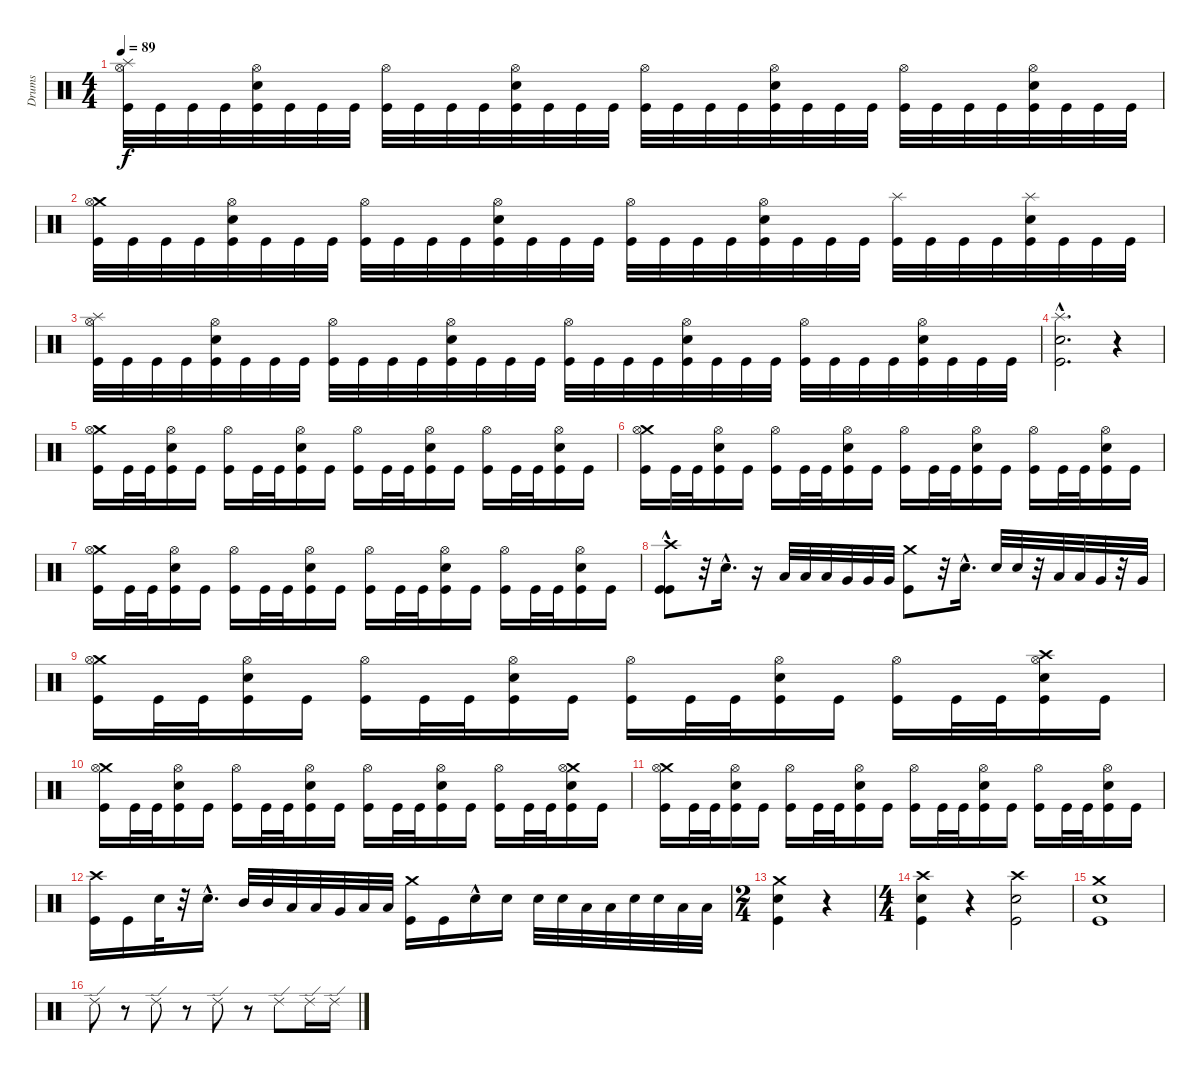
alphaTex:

\track ("Drums" "Drums") {instrument percussion}
\staff {score}
\articulation defaults
\ts (4 4)
\tempo 89
\clef neutral
\ks c
("Splash (hit)" "Hi-Hat (open)" "Kick (hit)").32{dy f} "Kick (hit)".32 "Kick (hit)".32 "Kick (hit)".32 ("Snare (hit) 2" "Hi-Hat (open)" "Kick (hit)").32 "Kick (hit)".32 "Kick (hit)".32 "Kick (hit)".32 ("Hi-Hat (open)" "Kick (hit)").32 "Kick (hit)".32 "Kick (hit)".32 "Kick (hit)".32 ("Snare (hit) 2" "Hi-Hat (open)" "Kick (hit)").32 "Kick (hit)".32 "Kick (hit)".32 "Kick (hit)".32 ("Hi-Hat (open)" "Kick (hit)").32 "Kick (hit)".32 "Kick (hit)".32 "Kick (hit)".32 ("Snare (hit) 2" "Hi-Hat (open)" "Kick (hit)").32 "Kick (hit)".32 "Kick (hit)".32 "Kick (hit)".32 ("Hi-Hat (open)" "Kick (hit)").32 "Kick (hit)".32 "Kick (hit)".32 "Kick (hit)".32 ("Snare (hit) 2" "Hi-Hat (open)" "Kick (hit)").32 "Kick (hit)".32 "Kick (hit)".32 "Kick (hit)".32 |
("Crash medium (hit)" "Hi-Hat (open)" "Kick (hit)").32 "Kick (hit)".32 "Kick (hit)".32 "Kick (hit)".32 ("Snare (hit) 2" "Hi-Hat (open)" "Kick (hit)").32 "Kick (hit)".32 "Kick (hit)".32 "Kick (hit)".32 ("Hi-Hat (open)" "Kick (hit)").32 "Kick (hit)".32 "Kick (hit)".32 "Kick (hit)".32 ("Snare (hit) 2" "Hi-Hat (open)" "Kick (hit)").32 "Kick (hit)".32 "Kick (hit)".32 "Kick (hit)".32 ("Hi-Hat (open)" "Kick (hit)").32 "Kick (hit)".32 "Kick (hit)".32 "Kick (hit)".32 ("Snare (hit) 2" "Hi-Hat (open)" "Kick (hit)").32 "Kick (hit)".32 "Kick (hit)".32 "Kick (hit)".32 ("Splash (hit)" "Kick (hit)").32 "Kick (hit)".32 "Kick (hit)".32 "Kick (hit)".32 ("Splash (hit)" "Snare (hit) 2" "Kick (hit)").32 "Kick (hit)".32 "Kick (hit)".32 "Kick (hit)".32 |
("Splash (hit)" "Hi-Hat (open)" "Kick (hit)").32 "Kick (hit)".32 "Kick (hit)".32 "Kick (hit)".32 ("Snare (hit) 2" "Hi-Hat (open)" "Kick (hit)").32 "Kick (hit)".32 "Kick (hit)".32 "Kick (hit)".32 ("Hi-Hat (open)" "Kick (hit)").32 "Kick (hit)".32 "Kick (hit)".32 "Kick (hit)".32 ("Snare (hit) 2" "Hi-Hat (open)" "Kick (hit)").32 "Kick (hit)".32 "Kick (hit)".32 "Kick (hit)".32 ("Hi-Hat (open)" "Kick (hit)").32 "Kick (hit)".32 "Kick (hit)".32 "Kick (hit)".32 ("Snare (hit) 2" "Hi-Hat (open)" "Kick (hit)").32 "Kick (hit)".32 "Kick (hit)".32 "Kick (hit)".32 ("Hi-Hat (open)" "Kick (hit)").32 "Kick (hit)".32 "Kick (hit)".32 "Kick (hit)".32 ("Snare (hit) 2" "Hi-Hat (open)" "Kick (hit)").32 "Kick (hit)".32 "Kick (hit)".32 "Kick (hit)".32 |
("Snare (hit) 2" "Kick (hit)" "Splash (hit)"{hac}).2{d} r.4 |
("Crash medium (hit)" "Hi-Hat (open)" "Kick (hit)").16 "Kick (hit)".32 "Kick (hit)".32 ("Hi-Hat (open)" "Snare (hit) 2" "Kick (hit)").16 "Kick (hit)".16 ("Hi-Hat (open)" "Kick (hit)").16 "Kick (hit)".32 "Kick (hit)".32 ("Hi-Hat (open)" "Snare (hit) 2" "Kick (hit)").16 "Kick (hit)".16 ("Hi-Hat (open)" "Kick (hit)").16 "Kick (hit)".32 "Kick (hit)".32 ("Snare (hit) 2" "Hi-Hat (open)" "Kick (hit)").16 "Kick (hit)".16 ("Hi-Hat (open)" "Kick (hit)").16 "Kick (hit)".32 "Kick (hit)".32 ("Snare (hit) 2" "Hi-Hat (open)" "Kick (hit)").16 "Kick (hit)".16 |
("Kick (hit)" "Crash medium (hit)" "Hi-Hat (open)").16 "Kick (hit)".32 "Kick (hit)".32 ("Hi-Hat (open)" "Snare (hit) 2" "Kick (hit)").16 "Kick (hit)".16 ("Hi-Hat (open)" "Kick (hit)").16 "Kick (hit)".32 "Kick (hit)".32 ("Hi-Hat (open)" "Snare (hit) 2" "Kick (hit)").16 "Kick (hit)".16 ("Hi-Hat (open)" "Kick (hit)").16 "Kick (hit)".32 "Kick (hit)".32 ("Snare (hit) 2" "Hi-Hat (open)" "Kick (hit)").16 "Kick (hit)".16 ("Hi-Hat (open)" "Kick (hit)").16 "Kick (hit)".32 "Kick (hit)".32 ("Snare (hit) 2" "Hi-Hat (open)" "Kick (hit)").16 "Kick (hit)".16 |
("Kick (hit)" "Crash medium (hit)" "Hi-Hat (open)").16 "Kick (hit)".32 "Kick (hit)".32 ("Hi-Hat (open)" "Snare (hit) 2" "Kick (hit)").16 "Kick (hit)".16 ("Hi-Hat (open)" "Kick (hit)").16 "Kick (hit)".32 "Kick (hit)".32 ("Hi-Hat (open)" "Snare (hit) 2" "Kick (hit)").16 "Kick (hit)".16 ("Hi-Hat (open)" "Kick (hit)").16 "Kick (hit)".32 "Kick (hit)".32 ("Snare (hit) 2" "Hi-Hat (open)" "Kick (hit)").16 "Kick (hit)".16 ("Hi-Hat (open)" "Kick (hit)").16 "Kick (hit)".32 "Kick (hit)".32 ("Snare (hit) 2" "Hi-Hat (open)" "Kick (hit)").16 "Kick (hit)".16 |
("Kick (hit)"{hac} "Kick (hit)"{hac} "Crash high (hit)").8 r.32 "Electric Snare (hit)"{hac}.16{d} r.16 "Low Tom (hit)".32 "Low Tom (hit)".32 "Low Tom (hit)".32 "Very Low Tom (hit)".32 "Very Low Tom (hit)".32 "Very Low Tom (hit)".32 ("Kick (hit)" "Crash medium (hit)").8 r.32 "Snare (hit) 2"{hac}.16{d} "Electric Snare (hit)".32 "Electric Snare (hit)".32 r.32 "Low Tom (hit)".32 "Low Tom (hit)".32 "Very Low Tom (hit)".32 r.32 "Very Low Tom (hit)".32 |
("Crash medium (hit)" "Hi-Hat (open)" "Kick (hit)").16 "Kick (hit)".32 "Kick (hit)".32 ("Hi-Hat (open)" "Snare (hit) 2" "Kick (hit)").16 "Kick (hit)".16 ("Hi-Hat (open)" "Kick (hit)").16 "Kick (hit)".32 "Kick (hit)".32 ("Hi-Hat (open)" "Snare (hit) 2" "Kick (hit)").16 "Kick (hit)".16 ("Hi-Hat (open)" "Kick (hit)").16 "Kick (hit)".32 "Kick (hit)".32 ("Snare (hit) 2" "Hi-Hat (open)" "Kick (hit)").16 "Kick (hit)".16 ("Hi-Hat (open)" "Kick (hit)").16 "Kick (hit)".32 "Kick (hit)".32 ("Crash high (hit)" "Snare (hit) 2" "Hi-Hat (open)" "Kick (hit)").16 "Kick (hit)".16 |
("Kick (hit)" "Crash medium (hit)" "Hi-Hat (open)").16 "Kick (hit)".32 "Kick (hit)".32 ("Hi-Hat (open)" "Snare (hit) 2" "Kick (hit)").16 "Kick (hit)".16 ("Hi-Hat (open)" "Kick (hit)").16 "Kick (hit)".32 "Kick (hit)".32 ("Hi-Hat (open)" "Snare (hit) 2" "Kick (hit)").16 "Kick (hit)".16 ("Hi-Hat (open)" "Kick (hit)").16 "Kick (hit)".32 "Kick (hit)".32 ("Snare (hit) 2" "Hi-Hat (open)" "Kick (hit)").16 "Kick (hit)".16 ("Hi-Hat (open)" "Kick (hit)").16 "Kick (hit)".32 "Kick (hit)".32 ("Crash medium (hit)" "Snare (hit) 2" "Hi-Hat (open)" "Kick (hit)").16 "Kick (hit)".16 |
("Kick (hit)" "Crash medium (hit)" "Hi-Hat (open)").16 "Kick (hit)".32 "Kick (hit)".32 ("Hi-Hat (open)" "Snare (hit) 2" "Kick (hit)").16 "Kick (hit)".16 ("Hi-Hat (open)" "Kick (hit)").16 "Kick (hit)".32 "Kick (hit)".32 ("Hi-Hat (open)" "Snare (hit) 2" "Kick (hit)").16 "Kick (hit)".16 ("Hi-Hat (open)" "Kick (hit)").16 "Kick (hit)".32 "Kick (hit)".32 ("Snare (hit) 2" "Hi-Hat (open)" "Kick (hit)").16 "Kick (hit)".16 ("Hi-Hat (open)" "Kick (hit)").16 "Kick (hit)".32 "Kick (hit)".32 ("Snare (hit) 2" "Hi-Hat (open)" "Kick (hit)").16 "Kick (hit)".16 |
("Kick (hit)" "Crash high (hit)").16 "Kick (hit)".16 "Electric Snare (hit)".32 r.32 "Electric Snare (hit)"{hac}.16{d} "Mid Tom (hit)".32 "Mid Tom (hit)".32 "Low Tom (hit)".32 "Low Tom (hit)".32 "Very Low Tom (hit)".32 "Low Floor Tom (hit)".32 "Low Floor Tom (hit)".32 ("Kick (hit)" "Crash medium (hit)").16 "Kick (hit)".16 "Snare (hit) 2"{hac}.16 "Electric Snare (hit)".16 "Electric Snare (hit)".32 "Electric Snare (hit)".32 "Low Tom (hit)".32 "Low Tom (hit)".32 "Electric Snare (hit)".32 "Electric Snare (hit)".32 "Low Tom (hit)".32 "Low Tom (hit)".32 |
\ts (2 4)
("Kick (hit)" "Snare (hit) 2" "Crash medium (hit)").4 r.4 |
\ts (4 4)
("Crash high (hit)" "Snare (hit) 2" "Kick (hit)").4 r.4 ("Crash high (hit)" "Snare (hit) 2" "Kick (hit)").2 |
("Crash medium (hit)" "Snare (hit) 2" "Kick (hit)").1 |
"Ride (edge) 2".8{volume 16 balance 8} r.8 "Ride (edge) 2".8 r.8 "Ride (edge) 2".8 r.8 "Ride (edge) 2".8 "Ride (edge) 2".16 "Ride (edge) 2".16
